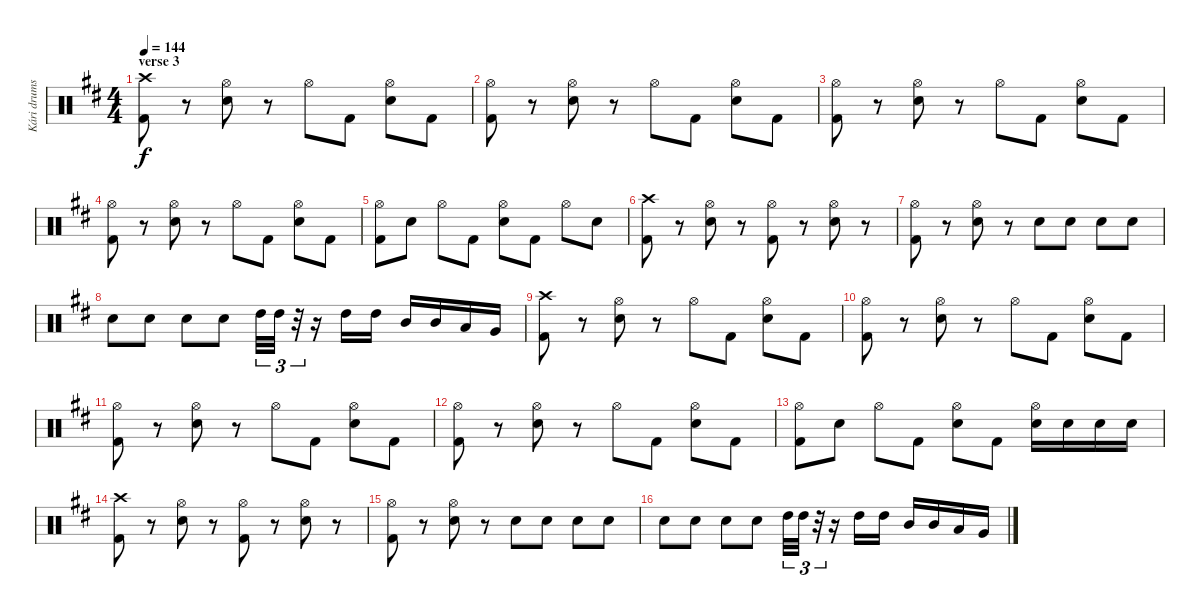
\track ("Kári drums" "Kári drums") {instrument percussion}
\staff {score}
\articulation defaults
\ts (4 4)
\section ("" "verse 3")
\tempo 144
\clef neutral
\ks bminor
("Crash high (hit)" "Kick (hit) 2").8{dy f} r.8 ("Hi-Hat (open)" "Snare (hit) 2").8 r.8 "Hi-Hat (open)".8 "Kick (hit) 2".8 ("Hi-Hat (open)" "Snare (hit) 2").8 "Kick (hit) 2".8 |
("Hi-Hat (open)" "Kick (hit) 2").8 r.8 ("Hi-Hat (open)" "Snare (hit) 2").8 r.8 "Hi-Hat (open)".8 "Kick (hit) 2".8 ("Hi-Hat (open)" "Snare (hit) 2").8 "Kick (hit) 2".8 |
("Hi-Hat (open)" "Kick (hit) 2").8 r.8 ("Hi-Hat (open)" "Snare (hit) 2").8 r.8 "Hi-Hat (open)".8 "Kick (hit) 2".8 ("Hi-Hat (open)" "Snare (hit) 2").8 "Kick (hit) 2".8 |
("Hi-Hat (open)" "Kick (hit) 2").8 r.8 ("Hi-Hat (open)" "Snare (hit) 2").8 r.8 "Hi-Hat (open)".8 "Kick (hit) 2".8 ("Hi-Hat (open)" "Snare (hit) 2").8 "Kick (hit) 2".8 |
("Hi-Hat (open)" "Kick (hit) 2").8 "Snare (hit) 2".8 "Hi-Hat (open)".8 "Kick (hit) 2".8 ("Hi-Hat (open)" "Snare (hit) 2").8 "Kick (hit) 2".8 "Hi-Hat (open)".8 "Snare (hit) 2".8 |
("Crash high (hit)" "Kick (hit) 2").8 r.8 ("Hi-Hat (open)" "Snare (hit) 2").8 r.8 ("Hi-Hat (open)" "Kick (hit) 2").8 r.8 ("Hi-Hat (open)" "Snare (hit) 2").8 r.8 |
("Hi-Hat (open)" "Kick (hit) 2").8 r.8 ("Hi-Hat (open)" "Snare (hit) 2").8 r.8 "Snare (hit) 2".8 "Snare (hit) 2".8 "Snare (hit) 2".8 "Snare (hit) 2".8 |
"Snare (hit) 2".8 "Snare (hit) 2".8 "Snare (hit) 2".8 "Snare (hit) 2".8 "High Tom (hit)".32{tu (3 2)} "High Tom (hit)".32{tu (3 2)} r.32{tu (3 2)} r.16 "High Tom (hit)".16 "High Tom (hit)".16 "Mid Tom (hit)".16 "Mid Tom (hit)".16 "Low Tom (hit)".16 "Very Low Tom (hit)".16 |
("Crash high (hit)" "Kick (hit) 2").8 r.8 ("Hi-Hat (open)" "Snare (hit) 2").8 r.8 "Hi-Hat (open)".8 "Kick (hit) 2".8 ("Hi-Hat (open)" "Snare (hit) 2").8 "Kick (hit) 2".8 |
("Hi-Hat (open)" "Kick (hit) 2").8 r.8 ("Hi-Hat (open)" "Snare (hit) 2").8 r.8 "Hi-Hat (open)".8 "Kick (hit) 2".8 ("Hi-Hat (open)" "Snare (hit) 2").8 "Kick (hit) 2".8 |
("Hi-Hat (open)" "Kick (hit) 2").8 r.8 ("Hi-Hat (open)" "Snare (hit) 2").8 r.8 "Hi-Hat (open)".8 "Kick (hit) 2".8 ("Hi-Hat (open)" "Snare (hit) 2").8 "Kick (hit) 2".8 |
("Hi-Hat (open)" "Kick (hit) 2").8 r.8 ("Hi-Hat (open)" "Snare (hit) 2").8 r.8 "Hi-Hat (open)".8 "Kick (hit) 2".8 ("Hi-Hat (open)" "Snare (hit) 2").8 "Kick (hit) 2".8 |
("Hi-Hat (open)" "Kick (hit) 2").8 "Snare (hit) 2".8 "Hi-Hat (open)".8 "Kick (hit) 2".8 ("Hi-Hat (open)" "Snare (hit) 2").8 "Kick (hit) 2".8 ("Hi-Hat (open)" "Snare (hit) 2").16 "Snare (hit) 2".16 "Snare (hit) 2".16 "Snare (hit) 2".16 |
("Crash high (hit)" "Kick (hit) 2").8 r.8 ("Hi-Hat (open)" "Snare (hit) 2").8 r.8 ("Hi-Hat (open)" "Kick (hit) 2").8 r.8 ("Hi-Hat (open)" "Snare (hit) 2").8 r.8 |
("Hi-Hat (open)" "Kick (hit) 2").8 r.8 ("Hi-Hat (open)" "Snare (hit) 2").8 r.8 "Snare (hit) 2".8 "Snare (hit) 2".8 "Snare (hit) 2".8 "Snare (hit) 2".8 |
"Snare (hit) 2".8 "Snare (hit) 2".8 "Snare (hit) 2".8 "Snare (hit) 2".8 "High Tom (hit)".32{tu (3 2)} "High Tom (hit)".32{tu (3 2)} r.32{tu (3 2)} r.16 "High Tom (hit)".16 "High Tom (hit)".16 "Mid Tom (hit)".16 "Mid Tom (hit)".16 "Low Tom (hit)".16 "Very Low Tom (hit)".16
